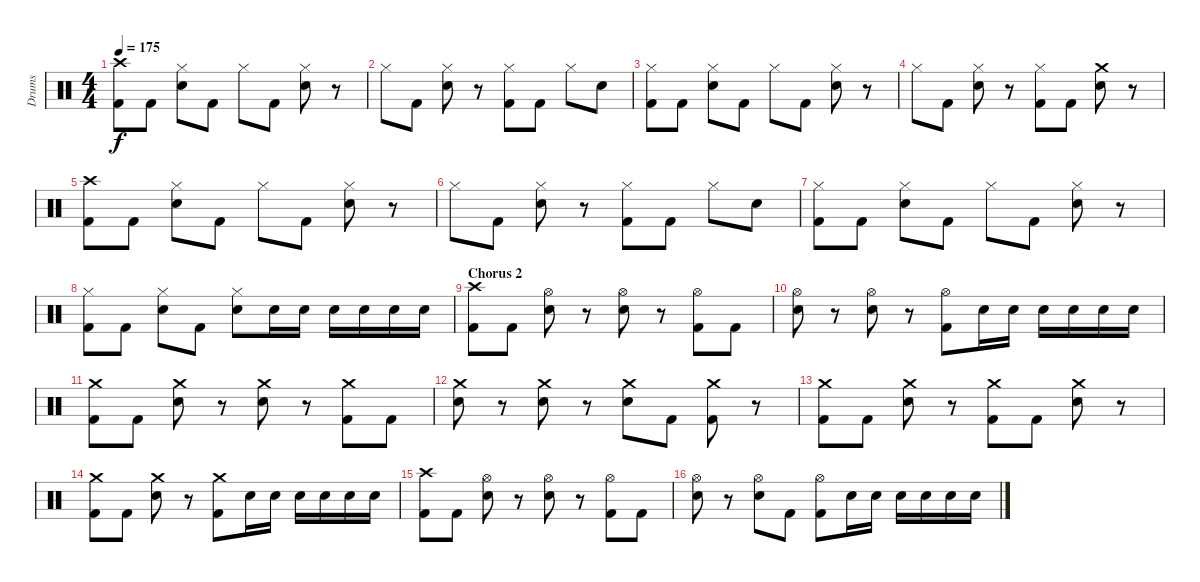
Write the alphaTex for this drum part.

\track ("Drums" "Drums") {instrument percussion}
\staff {score}
\articulation defaults
\ts (4 4)
\tempo 175
\clef neutral
\ks c
("Crash high (hit)" "Kick (hit) 2").8{dy f} "Kick (hit) 2".8 ("Hi-Hat (closed)" "Snare (hit) 2").8 "Kick (hit) 2".8 "Hi-Hat (closed)".8 "Kick (hit) 2".8 ("Hi-Hat (closed)" "Snare (hit) 2").8 r.8 |
"Hi-Hat (closed)".8 "Kick (hit) 2".8 ("Hi-Hat (closed)" "Snare (hit) 2").8 r.8 ("Hi-Hat (closed)" "Kick (hit) 2").8 "Kick (hit) 2".8 "Hi-Hat (closed)".8 "Snare (hit) 2".8 |
("Hi-Hat (closed)" "Kick (hit) 2").8 "Kick (hit) 2".8 ("Hi-Hat (closed)" "Snare (hit) 2").8 "Kick (hit) 2".8 "Hi-Hat (closed)".8 "Kick (hit) 2".8 ("Hi-Hat (closed)" "Snare (hit) 2").8 r.8 |
"Hi-Hat (closed)".8 "Kick (hit) 2".8 ("Hi-Hat (closed)" "Snare (hit) 2").8 r.8 ("Hi-Hat (closed)" "Kick (hit) 2").8 "Kick (hit) 2".8 ("Crash medium (hit)" "Snare (hit) 2").8 r.8 |
("Crash high (hit)" "Kick (hit) 2").8 "Kick (hit) 2".8 ("Hi-Hat (closed)" "Snare (hit) 2").8 "Kick (hit) 2".8 "Hi-Hat (closed)".8 "Kick (hit) 2".8 ("Hi-Hat (closed)" "Snare (hit) 2").8 r.8 |
"Hi-Hat (closed)".8 "Kick (hit) 2".8 ("Hi-Hat (closed)" "Snare (hit) 2").8 r.8 ("Hi-Hat (closed)" "Kick (hit) 2").8 "Kick (hit) 2".8 "Hi-Hat (closed)".8 "Snare (hit) 2".8 |
("Hi-Hat (closed)" "Kick (hit) 2").8 "Kick (hit) 2".8 ("Hi-Hat (closed)" "Snare (hit) 2").8 "Kick (hit) 2".8 "Hi-Hat (closed)".8 "Kick (hit) 2".8 ("Hi-Hat (closed)" "Snare (hit) 2").8 r.8 |
("Hi-Hat (closed)" "Kick (hit) 2").8 "Kick (hit) 2".8 ("Hi-Hat (closed)" "Snare (hit) 2").8 "Kick (hit) 2".8 ("Hi-Hat (closed)" "Snare (hit) 2").8 "Snare (hit) 2".16 "Snare (hit) 2".16 "Snare (hit) 2".16 "Snare (hit) 2".16 "Snare (hit) 2".16 "Snare (hit) 2".16 |
\section ("" "Chorus 2")
("Crash high (hit)" "Kick (hit) 2").8 "Kick (hit) 2".8 ("Hi-Hat (open)" "Snare (hit) 2").8 r.8 ("Hi-Hat (open)" "Snare (hit) 2").8 r.8 ("Hi-Hat (open)" "Kick (hit) 2").8 "Kick (hit) 2".8 |
("Hi-Hat (open)" "Snare (hit) 2").8 r.8 ("Hi-Hat (open)" "Snare (hit) 2").8 r.8 ("Hi-Hat (open)" "Kick (hit) 2").8 "Snare (hit) 2".16 "Snare (hit) 2".16 "Snare (hit) 2".16 "Snare (hit) 2".16 "Snare (hit) 2".16 "Snare (hit) 2".16 |
("Crash medium (hit)" "Kick (hit) 2").8 "Kick (hit) 2".8 ("Crash medium (hit)" "Snare (hit) 2").8 r.8 ("Crash medium (hit)" "Snare (hit) 2").8 r.8 ("Crash medium (hit)" "Kick (hit) 2").8 "Kick (hit) 2".8 |
("Crash medium (hit)" "Snare (hit) 2").8 r.8 ("Crash medium (hit)" "Snare (hit) 2").8 r.8 ("Crash medium (hit)" "Snare (hit) 2").8 "Kick (hit) 2".8 ("Crash medium (hit)" "Kick (hit) 2").8 r.8 |
("Crash medium (hit)" "Kick (hit) 2").8 "Kick (hit) 2".8 ("Crash medium (hit)" "Snare (hit) 2").8 r.8 ("Crash medium (hit)" "Kick (hit) 2").8 "Kick (hit) 2".8 ("Crash medium (hit)" "Snare (hit) 2").8 r.8 |
("Crash medium (hit)" "Kick (hit) 2").8 "Kick (hit) 2".8 ("Crash medium (hit)" "Snare (hit) 2").8 r.8 ("Crash medium (hit)" "Kick (hit) 2").8 "Snare (hit) 2".16 "Snare (hit) 2".16 "Snare (hit) 2".16 "Snare (hit) 2".16 "Snare (hit) 2".16 "Snare (hit) 2".16 |
("Crash high (hit)" "Kick (hit) 2").8 "Kick (hit) 2".8 ("Hi-Hat (open)" "Snare (hit) 2").8 r.8 ("Hi-Hat (open)" "Snare (hit) 2").8 r.8 ("Hi-Hat (open)" "Kick (hit) 2").8 "Kick (hit) 2".8 |
("Hi-Hat (open)" "Snare (hit) 2").8 r.8 ("Hi-Hat (open)" "Snare (hit) 2").8 "Kick (hit) 2".8 ("Hi-Hat (open)" "Kick (hit) 2").8 "Snare (hit) 2".16 "Snare (hit) 2".16 "Snare (hit) 2".16 "Snare (hit) 2".16 "Snare (hit) 2".16 "Snare (hit) 2".16
